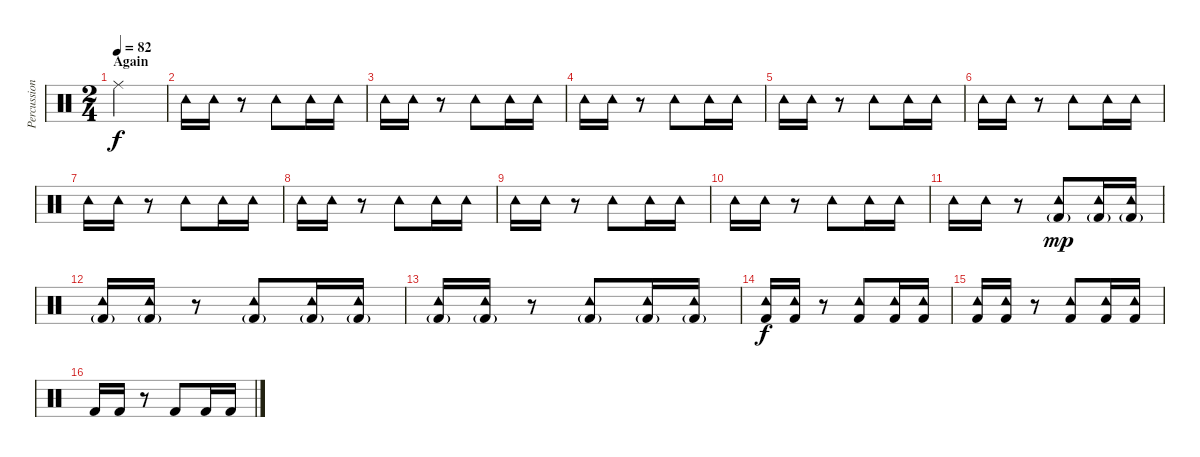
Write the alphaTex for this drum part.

\track ("Percussions" "Percussion") {instrument percussion}
\staff {score}
\articulation defaults
\ts (2 4)
\section ("" "Again")
\tempo 82
\clef neutral
\ks c "Ride (middle)".2{dy f}
|
"Tambourine (hit)".16 "Tambourine (hit)".16 r.8 "Tambourine (hit)".8 "Tambourine (hit)".16 "Tambourine (hit)".16 |
"Tambourine (hit)".16 "Tambourine (hit)".16 r.8 "Tambourine (hit)".8 "Tambourine (hit)".16 "Tambourine (hit)".16 |
"Tambourine (hit)".16 "Tambourine (hit)".16 r.8 "Tambourine (hit)".8 "Tambourine (hit)".16 "Tambourine (hit)".16 |
"Tambourine (hit)".16 "Tambourine (hit)".16 r.8 "Tambourine (hit)".8 "Tambourine (hit)".16 "Tambourine (hit)".16 |
"Tambourine (hit)".16 "Tambourine (hit)".16 r.8 "Tambourine (hit)".8 "Tambourine (hit)".16 "Tambourine (hit)".16 |
"Tambourine (hit)".16 "Tambourine (hit)".16 r.8 "Tambourine (hit)".8 "Tambourine (hit)".16 "Tambourine (hit)".16 |
"Tambourine (hit)".16 "Tambourine (hit)".16 r.8 "Tambourine (hit)".8 "Tambourine (hit)".16 "Tambourine (hit)".16 |
"Tambourine (hit)".16 "Tambourine (hit)".16 r.8 "Tambourine (hit)".8 "Tambourine (hit)".16 "Tambourine (hit)".16 |
"Tambourine (hit)".16 "Tambourine (hit)".16 r.8 "Tambourine (hit)".8 "Tambourine (hit)".16 "Tambourine (hit)".16 |
"Tambourine (hit)".16 "Tambourine (hit)".16 r.8 ("Tambourine (hit)" "Kick (hit) 2"{g}).8{dy mp} ("Tambourine (hit)" "Kick (hit) 2"{g}).16 ("Tambourine (hit)" "Kick (hit) 2"{g}).16 |
("Tambourine (hit)" "Kick (hit) 2"{g}).16 ("Tambourine (hit)" "Kick (hit) 2"{g}).16 r.8 ("Tambourine (hit)" "Kick (hit) 2"{g}).8 ("Tambourine (hit)" "Kick (hit) 2"{g}).16 ("Tambourine (hit)" "Kick (hit) 2"{g}).16 |
("Tambourine (hit)" "Kick (hit) 2"{g}).16 ("Tambourine (hit)" "Kick (hit) 2"{g}).16 r.8 ("Tambourine (hit)" "Kick (hit) 2"{g}).8 ("Tambourine (hit)" "Kick (hit) 2"{g}).16 ("Tambourine (hit)" "Kick (hit) 2"{g}).16 |
("Tambourine (hit)" "Kick (hit) 2").16{dy f} ("Tambourine (hit)" "Kick (hit) 2").16 r.8 ("Tambourine (hit)" "Kick (hit) 2").8 ("Tambourine (hit)" "Kick (hit) 2").16 ("Tambourine (hit)" "Kick (hit) 2").16 |
("Tambourine (hit)" "Kick (hit) 2").16 ("Tambourine (hit)" "Kick (hit) 2").16 r.8 ("Tambourine (hit)" "Kick (hit) 2").8 ("Tambourine (hit)" "Kick (hit) 2").16 ("Tambourine (hit)" "Kick (hit) 2").16 |
"Kick (hit) 2".16 "Kick (hit) 2".16 r.8 "Kick (hit) 2".8 "Kick (hit) 2".16 "Kick (hit) 2".16
